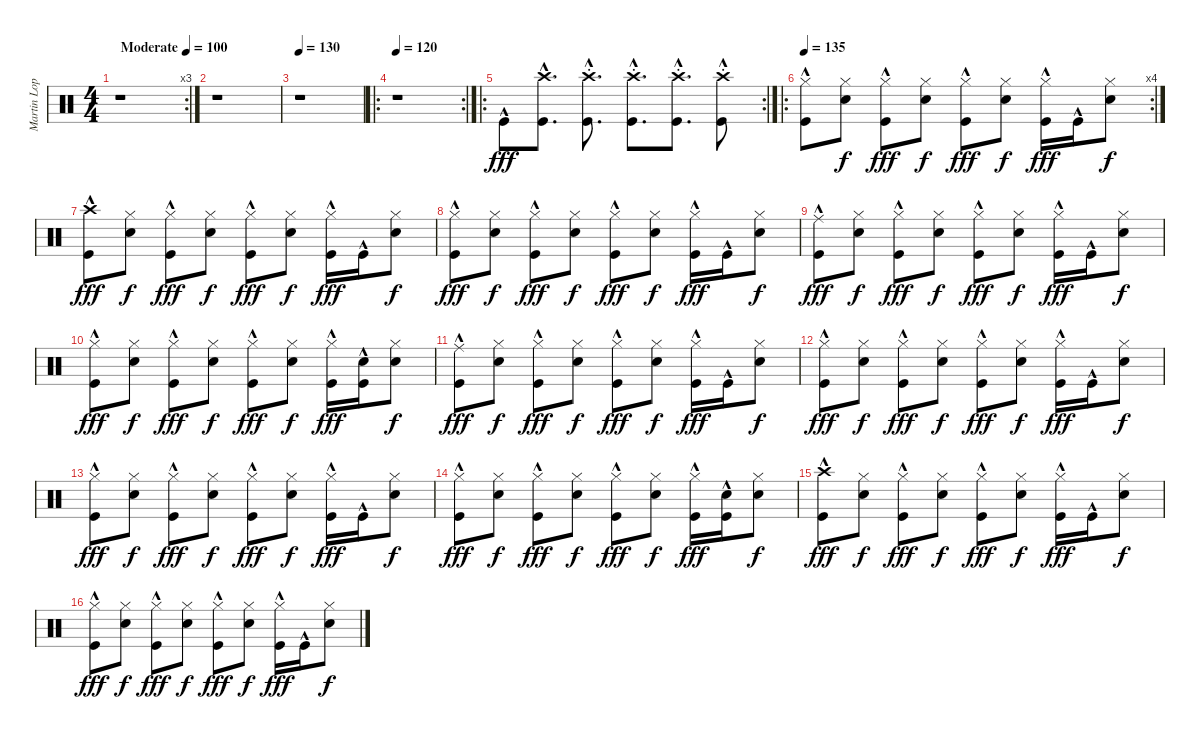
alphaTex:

\track ("Martin Lopez" "Martin Lop") {instrument percussion}
\staff {score}
\articulation defaults
\rc 3
\ts (4 4)
\tempo (100 "Moderate")
\clef neutral
\ks c
r.1{dy fff} |
r.1 |
\tempo 130
r.1 |
\ro
\rc 2
\tempo 120
r.1 |
\ro
\rc 2 "Kick (hit)"{hac}.8
("Crash high (hit)" "Kick (hit)"{hac}).8{d} ("Crash high (hit)"{st} "Kick (hit)"{hac}).8{d} ("Crash high (hit)"{st} "Kick (hit)"{hac}).8{d} ("Crash high (hit)"{st} "Kick (hit)"{hac}).8{d} ("Crash high (hit)"{st} "Kick (hit)"{hac}).8 |
\ro
\rc 4
\tempo 140
\tempo 135
("Hi-Hat (closed)" "Kick (hit)"{hac}).8 ("Hi-Hat (closed)" "Electric Snare (hit)").8{dy f} ("Hi-Hat (closed)" "Kick (hit)"{hac}).8{dy fff} ("Hi-Hat (closed)" "Electric Snare (hit)").8{dy f} ("Hi-Hat (closed)" "Kick (hit)"{hac}).8{dy fff} ("Hi-Hat (closed)" "Electric Snare (hit)").8{dy f} ("Hi-Hat (closed)" "Kick (hit)"{hac}).16{dy fff} "Kick (hit)"{hac}.16 ("Hi-Hat (closed)" "Electric Snare (hit)").8{dy f} |
("Crash high (hit)" "Kick (hit)"{hac}).8{dy fff} ("Hi-Hat (closed)" "Electric Snare (hit)").8{dy f} ("Hi-Hat (closed)" "Kick (hit)"{hac}).8{dy fff} ("Hi-Hat (closed)" "Electric Snare (hit)").8{dy f} ("Hi-Hat (closed)" "Kick (hit)"{hac}).8{dy fff} ("Hi-Hat (closed)" "Electric Snare (hit)").8{dy f} ("Hi-Hat (closed)" "Kick (hit)"{hac}).16{dy fff} "Kick (hit)"{hac}.16 ("Hi-Hat (closed)" "Electric Snare (hit)").8{dy f} |
("Hi-Hat (closed)" "Kick (hit)"{hac}).8{dy fff} ("Hi-Hat (closed)" "Electric Snare (hit)").8{dy f} ("Hi-Hat (closed)" "Kick (hit)"{hac}).8{dy fff} ("Hi-Hat (closed)" "Electric Snare (hit)").8{dy f} ("Hi-Hat (closed)" "Kick (hit)"{hac}).8{dy fff} ("Hi-Hat (closed)" "Electric Snare (hit)").8{dy f} ("Hi-Hat (closed)" "Kick (hit)"{hac}).16{dy fff} "Kick (hit)"{hac}.16 ("Hi-Hat (closed)" "Electric Snare (hit)").8{dy f} |
("Ride (middle)" "Kick (hit)"{hac}).8{dy fff} ("Hi-Hat (closed)" "Electric Snare (hit)").8{dy f} ("Hi-Hat (closed)" "Kick (hit)"{hac}).8{dy fff} ("Hi-Hat (closed)" "Electric Snare (hit)").8{dy f} ("Hi-Hat (closed)" "Kick (hit)"{hac}).8{dy fff} ("Hi-Hat (closed)" "Electric Snare (hit)").8{dy f} ("Hi-Hat (closed)" "Kick (hit)"{hac}).16{dy fff} "Kick (hit)"{hac}.16 ("Hi-Hat (closed)" "Electric Snare (hit)").8{dy f} |
("Hi-Hat (closed)" "Kick (hit)"{hac}).8{dy fff} ("Hi-Hat (closed)" "Electric Snare (hit)").8{dy f} ("Hi-Hat (closed)" "Kick (hit)"{hac}).8{dy fff} ("Hi-Hat (closed)" "Electric Snare (hit)").8{dy f} ("Hi-Hat (closed)" "Kick (hit)"{hac}).8{dy fff} ("Hi-Hat (closed)" "Electric Snare (hit)").8{dy f} ("Hi-Hat (closed)" "Kick (hit)"{hac}).16{dy fff} ("Electric Snare (hit)" "Kick (hit)"{hac}).16 ("Hi-Hat (closed)" "Electric Snare (hit)").8{dy f} |
("Ride (middle)" "Kick (hit)"{hac}).8{dy fff} ("Hi-Hat (closed)" "Electric Snare (hit)").8{dy f} ("Hi-Hat (closed)" "Kick (hit)"{hac}).8{dy fff} ("Hi-Hat (closed)" "Electric Snare (hit)").8{dy f} ("Hi-Hat (closed)" "Kick (hit)"{hac}).8{dy fff} ("Hi-Hat (closed)" "Electric Snare (hit)").8{dy f} ("Hi-Hat (closed)" "Kick (hit)"{hac}).16{dy fff} "Kick (hit)"{hac}.16 ("Hi-Hat (closed)" "Electric Snare (hit)").8{dy f} |
("Hi-Hat (closed)" "Kick (hit)"{hac}).8{dy fff} ("Hi-Hat (closed)" "Electric Snare (hit)").8{dy f} ("Hi-Hat (closed)" "Kick (hit)"{hac}).8{dy fff} ("Hi-Hat (closed)" "Electric Snare (hit)").8{dy f} ("Hi-Hat (closed)" "Kick (hit)"{hac}).8{dy fff} ("Hi-Hat (closed)" "Electric Snare (hit)").8{dy f} ("Hi-Hat (closed)" "Kick (hit)"{hac}).16{dy fff} "Kick (hit)"{hac}.16 ("Hi-Hat (closed)" "Electric Snare (hit)").8{dy f} |
("Hi-Hat (closed)" "Kick (hit)"{hac}).8{dy fff} ("Hi-Hat (closed)" "Electric Snare (hit)").8{dy f} ("Hi-Hat (closed)" "Kick (hit)"{hac}).8{dy fff} ("Hi-Hat (closed)" "Electric Snare (hit)").8{dy f} ("Hi-Hat (closed)" "Kick (hit)"{hac}).8{dy fff} ("Hi-Hat (closed)" "Electric Snare (hit)").8{dy f} ("Hi-Hat (closed)" "Kick (hit)"{hac}).16{dy fff} "Kick (hit)"{hac}.16 ("Hi-Hat (closed)" "Electric Snare (hit)").8{dy f} |
("Hi-Hat (closed)" "Kick (hit)"{hac}).8{dy fff} ("Hi-Hat (closed)" "Electric Snare (hit)").8{dy f} ("Hi-Hat (closed)" "Kick (hit)"{hac}).8{dy fff} ("Hi-Hat (closed)" "Electric Snare (hit)").8{dy f} ("Hi-Hat (closed)" "Kick (hit)"{hac}).8{dy fff} ("Hi-Hat (closed)" "Electric Snare (hit)").8{dy f} ("Hi-Hat (closed)" "Kick (hit)"{hac}).16{dy fff} ("Electric Snare (hit)" "Kick (hit)"{hac}).16 ("Hi-Hat (closed)" "Electric Snare (hit)").8{dy f} |
("Crash high (hit)" "Kick (hit)"{hac}).8{dy fff} ("Hi-Hat (closed)" "Electric Snare (hit)").8{dy f} ("Hi-Hat (closed)" "Kick (hit)"{hac}).8{dy fff} ("Hi-Hat (closed)" "Electric Snare (hit)").8{dy f} ("Hi-Hat (closed)" "Kick (hit)"{hac}).8{dy fff} ("Hi-Hat (closed)" "Electric Snare (hit)").8{dy f} ("Hi-Hat (closed)" "Kick (hit)"{hac}).16{dy fff} "Kick (hit)"{hac}.16 ("Hi-Hat (closed)" "Electric Snare (hit)").8{dy f} |
("Hi-Hat (closed)" "Kick (hit)"{hac}).8{dy fff} ("Hi-Hat (closed)" "Electric Snare (hit)").8{dy f} ("Hi-Hat (closed)" "Kick (hit)"{hac}).8{dy fff} ("Hi-Hat (closed)" "Electric Snare (hit)").8{dy f} ("Hi-Hat (closed)" "Kick (hit)"{hac}).8{dy fff} ("Hi-Hat (closed)" "Electric Snare (hit)").8{dy f} ("Hi-Hat (closed)" "Kick (hit)"{hac}).16{dy fff} "Kick (hit)"{hac}.16 ("Hi-Hat (closed)" "Electric Snare (hit)").8{dy f}
